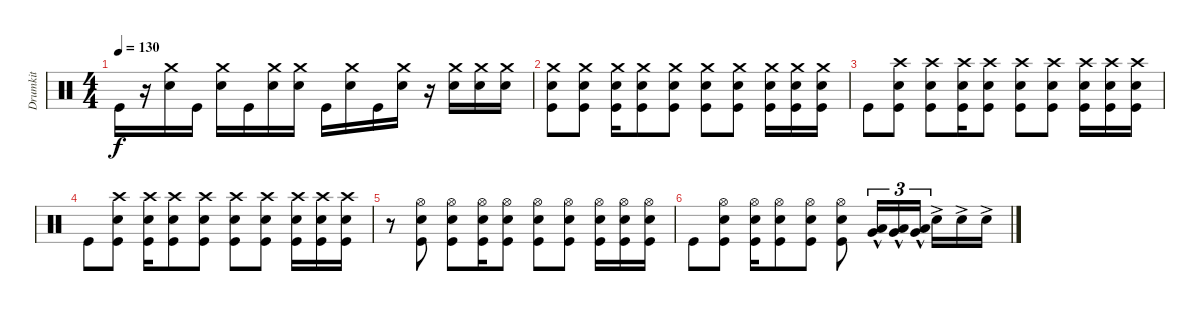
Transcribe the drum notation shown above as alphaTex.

\track ("Drumkit" "Drumkit") {instrument percussion}
\staff {score}
\articulation defaults
\ts (4 4)
\tempo 130
\clef neutral
\ks c "Kick (hit)".16{dy f}
r.16 ("Snare (hit) 2" "Crash medium (hit)").16 "Kick (hit)".16 ("Snare (hit) 2" "Crash medium (hit)").16 "Kick (hit)".16 ("Snare (hit) 2" "Crash medium (hit)").16 ("Snare (hit) 2" "Crash medium (hit)").16 "Kick (hit)".16 ("Snare (hit) 2" "Crash medium (hit)").16 "Kick (hit)".16 ("Snare (hit) 2" "Crash medium (hit)").16 r.16 ("Snare (hit) 2" "Crash medium (hit)").16 ("Snare (hit) 2" "Crash medium (hit)").16 ("Snare (hit) 2" "Crash medium (hit)").16 |
("Snare (hit) 2" "Kick (hit)" "Crash medium (hit)").8 ("Snare (hit) 2" "Kick (hit)" "Crash medium (hit)").8 ("Snare (hit) 2" "Kick (hit)" "Crash medium (hit)").16 ("Snare (hit) 2" "Kick (hit)" "Crash medium (hit)").8 ("Snare (hit) 2" "Kick (hit)" "Crash medium (hit)").8 ("Snare (hit) 2" "Kick (hit)" "Crash medium (hit)").8 ("Snare (hit) 2" "Kick (hit)" "Crash medium (hit)").8 ("Snare (hit) 2" "Kick (hit)" "Crash medium (hit)").16 ("Snare (hit) 2" "Kick (hit)" "Crash medium (hit)").16 ("Snare (hit) 2" "Kick (hit)" "Crash medium (hit)").16 |
"Kick (hit)".8 ("Snare (hit) 2" "Kick (hit)" "Crash high (hit)").8 ("Snare (hit) 2" "Kick (hit)" "Crash high (hit)").8 ("Snare (hit) 2" "Kick (hit)" "Crash high (hit)").16 ("Snare (hit) 2" "Kick (hit)" "Crash high (hit)").8 ("Snare (hit) 2" "Kick (hit)" "Crash high (hit)").8 ("Snare (hit) 2" "Kick (hit)" "Crash high (hit)").8 ("Snare (hit) 2" "Kick (hit)" "Crash high (hit)").16 ("Snare (hit) 2" "Kick (hit)" "Crash high (hit)").16 ("Snare (hit) 2" "Kick (hit)" "Crash high (hit)").16 |
"Kick (hit)".8 ("Snare (hit) 2" "Kick (hit)" "Crash high (hit)").8 ("Snare (hit) 2" "Kick (hit)" "Crash high (hit)").16 ("Snare (hit) 2" "Kick (hit)" "Crash high (hit)").8 ("Snare (hit) 2" "Kick (hit)" "Crash high (hit)").8 ("Snare (hit) 2" "Kick (hit)" "Crash high (hit)").8 ("Snare (hit) 2" "Kick (hit)" "Crash high (hit)").8 ("Snare (hit) 2" "Crash high (hit)" "Kick (hit)").16 ("Snare (hit) 2" "Crash high (hit)" "Kick (hit)").16 ("Snare (hit) 2" "Crash high (hit)" "Kick (hit)").16 |
r.8 ("Snare (hit) 2" "Kick (hit)" "Hi-Hat (open)").8 ("Snare (hit) 2" "Kick (hit)" "Hi-Hat (open)").8 ("Snare (hit) 2" "Kick (hit)" "Hi-Hat (open)").16 ("Snare (hit) 2" "Kick (hit)" "Hi-Hat (open)").8 ("Snare (hit) 2" "Kick (hit)" "Hi-Hat (open)").8 ("Snare (hit) 2" "Kick (hit)" "Hi-Hat (open)").8 ("Snare (hit) 2" "Kick (hit)" "Hi-Hat (open)").16 ("Snare (hit) 2" "Kick (hit)" "Hi-Hat (open)").16 ("Snare (hit) 2" "Kick (hit)" "Hi-Hat (open)").16 |
"Kick (hit)".8 ("Snare (hit) 2" "Kick (hit)" "Hi-Hat (open)").8 ("Snare (hit) 2" "Kick (hit)" "Hi-Hat (open)").16 ("Snare (hit) 2" "Kick (hit)" "Hi-Hat (open)").8 ("Snare (hit) 2" "Kick (hit)" "Hi-Hat (open)").8 ("Snare (hit) 2" "Kick (hit)" "Hi-Hat (open)").8 ("Very Low Tom (hit)"{hac} "Low Tom (hit)").16{tu (3 2)} ("Very Low Tom (hit)"{hac} "Low Tom (hit)").16{tu (3 2)} ("Very Low Tom (hit)"{hac} "Low Tom (hit)").16{tu (3 2) beam splitsecondary} "Snare (hit) 2"{ac}.16 "Snare (hit) 2"{ac}.16 "Snare (hit) 2"{ac}.16
